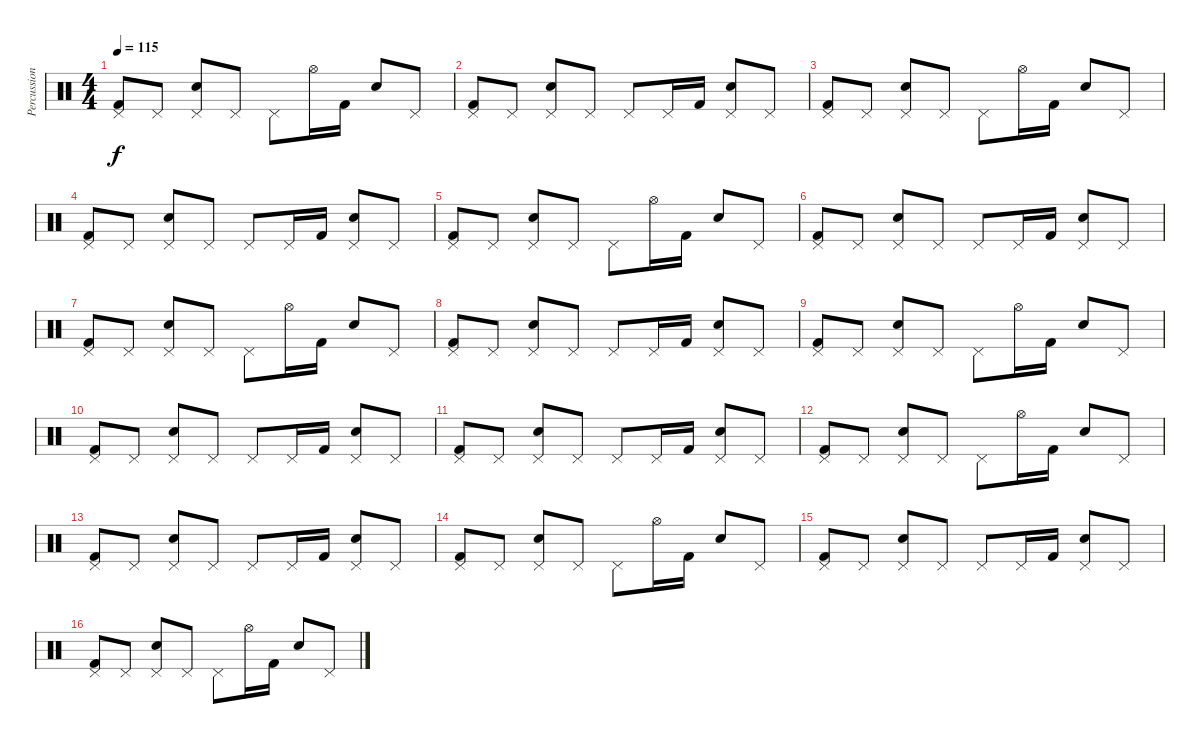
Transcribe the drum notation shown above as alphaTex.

\track ("Percussions" "Percussion") {instrument percussion}
\staff {score}
\articulation defaults
\ts (4 4)
\tempo 115
\clef neutral
\ks c
("Pedal Hi-Hat (hit)" "Kick (hit) 2").8{dy f} "Pedal Hi-Hat (hit)".8 ("Pedal Hi-Hat (hit)" "Snare (hit) 2").8 "Pedal Hi-Hat (hit)".8 "Pedal Hi-Hat (hit)".8 "Hi-Hat (open)".16 "Kick (hit) 2".16 "Snare (hit) 2".8 "Pedal Hi-Hat (hit)".8 |
("Pedal Hi-Hat (hit)" "Kick (hit) 2").8 "Pedal Hi-Hat (hit)".8 ("Pedal Hi-Hat (hit)" "Snare (hit) 2").8 "Pedal Hi-Hat (hit)".8 "Pedal Hi-Hat (hit)".8 "Pedal Hi-Hat (hit)".16 "Kick (hit) 2".16 ("Pedal Hi-Hat (hit)" "Snare (hit) 2").8 "Pedal Hi-Hat (hit)".8 |
("Pedal Hi-Hat (hit)" "Kick (hit) 2").8 "Pedal Hi-Hat (hit)".8 ("Pedal Hi-Hat (hit)" "Snare (hit) 2").8 "Pedal Hi-Hat (hit)".8 "Pedal Hi-Hat (hit)".8 "Hi-Hat (open)".16 "Kick (hit) 2".16 "Snare (hit) 2".8 "Pedal Hi-Hat (hit)".8 |
("Pedal Hi-Hat (hit)" "Kick (hit) 2").8 "Pedal Hi-Hat (hit)".8 ("Pedal Hi-Hat (hit)" "Snare (hit) 2").8 "Pedal Hi-Hat (hit)".8 "Pedal Hi-Hat (hit)".8 "Pedal Hi-Hat (hit)".16 "Kick (hit) 2".16 ("Pedal Hi-Hat (hit)" "Snare (hit) 2").8 "Pedal Hi-Hat (hit)".8 |
("Pedal Hi-Hat (hit)" "Kick (hit) 2").8 "Pedal Hi-Hat (hit)".8 ("Pedal Hi-Hat (hit)" "Snare (hit) 2").8 "Pedal Hi-Hat (hit)".8 "Pedal Hi-Hat (hit)".8 "Hi-Hat (open)".16 "Kick (hit) 2".16 "Snare (hit) 2".8 "Pedal Hi-Hat (hit)".8 |
("Pedal Hi-Hat (hit)" "Kick (hit) 2").8 "Pedal Hi-Hat (hit)".8 ("Pedal Hi-Hat (hit)" "Snare (hit) 2").8 "Pedal Hi-Hat (hit)".8 "Pedal Hi-Hat (hit)".8 "Pedal Hi-Hat (hit)".16 "Kick (hit) 2".16 ("Pedal Hi-Hat (hit)" "Snare (hit) 2").8 "Pedal Hi-Hat (hit)".8 |
("Pedal Hi-Hat (hit)" "Kick (hit) 2").8 "Pedal Hi-Hat (hit)".8 ("Pedal Hi-Hat (hit)" "Snare (hit) 2").8 "Pedal Hi-Hat (hit)".8 "Pedal Hi-Hat (hit)".8 "Hi-Hat (open)".16 "Kick (hit) 2".16 "Snare (hit) 2".8 "Pedal Hi-Hat (hit)".8 |
("Pedal Hi-Hat (hit)" "Kick (hit) 2").8 "Pedal Hi-Hat (hit)".8 ("Pedal Hi-Hat (hit)" "Snare (hit) 2").8 "Pedal Hi-Hat (hit)".8 "Pedal Hi-Hat (hit)".8 "Pedal Hi-Hat (hit)".16 "Kick (hit) 2".16 ("Pedal Hi-Hat (hit)" "Snare (hit) 2").8 "Pedal Hi-Hat (hit)".8 |
("Pedal Hi-Hat (hit)" "Kick (hit) 2").8 "Pedal Hi-Hat (hit)".8 ("Pedal Hi-Hat (hit)" "Snare (hit) 2").8 "Pedal Hi-Hat (hit)".8 "Pedal Hi-Hat (hit)".8 "Hi-Hat (open)".16 "Kick (hit) 2".16 "Snare (hit) 2".8 "Pedal Hi-Hat (hit)".8 |
("Pedal Hi-Hat (hit)" "Kick (hit) 2").8 "Pedal Hi-Hat (hit)".8 ("Pedal Hi-Hat (hit)" "Snare (hit) 2").8 "Pedal Hi-Hat (hit)".8 "Pedal Hi-Hat (hit)".8 "Pedal Hi-Hat (hit)".16 "Kick (hit) 2".16 ("Pedal Hi-Hat (hit)" "Snare (hit) 2").8 "Pedal Hi-Hat (hit)".8 |
("Pedal Hi-Hat (hit)" "Kick (hit) 2").8 "Pedal Hi-Hat (hit)".8 ("Pedal Hi-Hat (hit)" "Snare (hit) 2").8 "Pedal Hi-Hat (hit)".8 "Pedal Hi-Hat (hit)".8 "Pedal Hi-Hat (hit)".16 "Kick (hit) 2".16 ("Pedal Hi-Hat (hit)" "Snare (hit) 2").8 "Pedal Hi-Hat (hit)".8 |
("Pedal Hi-Hat (hit)" "Kick (hit) 2").8 "Pedal Hi-Hat (hit)".8 ("Pedal Hi-Hat (hit)" "Snare (hit) 2").8 "Pedal Hi-Hat (hit)".8 "Pedal Hi-Hat (hit)".8 "Hi-Hat (open)".16 "Kick (hit) 2".16 "Snare (hit) 2".8 "Pedal Hi-Hat (hit)".8 |
("Pedal Hi-Hat (hit)" "Kick (hit) 2").8 "Pedal Hi-Hat (hit)".8 ("Pedal Hi-Hat (hit)" "Snare (hit) 2").8 "Pedal Hi-Hat (hit)".8 "Pedal Hi-Hat (hit)".8 "Pedal Hi-Hat (hit)".16 "Kick (hit) 2".16 ("Pedal Hi-Hat (hit)" "Snare (hit) 2").8 "Pedal Hi-Hat (hit)".8 |
("Pedal Hi-Hat (hit)" "Kick (hit) 2").8 "Pedal Hi-Hat (hit)".8 ("Pedal Hi-Hat (hit)" "Snare (hit) 2").8 "Pedal Hi-Hat (hit)".8 "Pedal Hi-Hat (hit)".8 "Hi-Hat (open)".16 "Kick (hit) 2".16 "Snare (hit) 2".8 "Pedal Hi-Hat (hit)".8 |
("Pedal Hi-Hat (hit)" "Kick (hit) 2").8 "Pedal Hi-Hat (hit)".8 ("Pedal Hi-Hat (hit)" "Snare (hit) 2").8 "Pedal Hi-Hat (hit)".8 "Pedal Hi-Hat (hit)".8 "Pedal Hi-Hat (hit)".16 "Kick (hit) 2".16 ("Pedal Hi-Hat (hit)" "Snare (hit) 2").8 "Pedal Hi-Hat (hit)".8 |
("Pedal Hi-Hat (hit)" "Kick (hit) 2").8 "Pedal Hi-Hat (hit)".8 ("Pedal Hi-Hat (hit)" "Snare (hit) 2").8 "Pedal Hi-Hat (hit)".8 "Pedal Hi-Hat (hit)".8 "Hi-Hat (open)".16 "Kick (hit) 2".16 "Snare (hit) 2".8 "Pedal Hi-Hat (hit)".8
